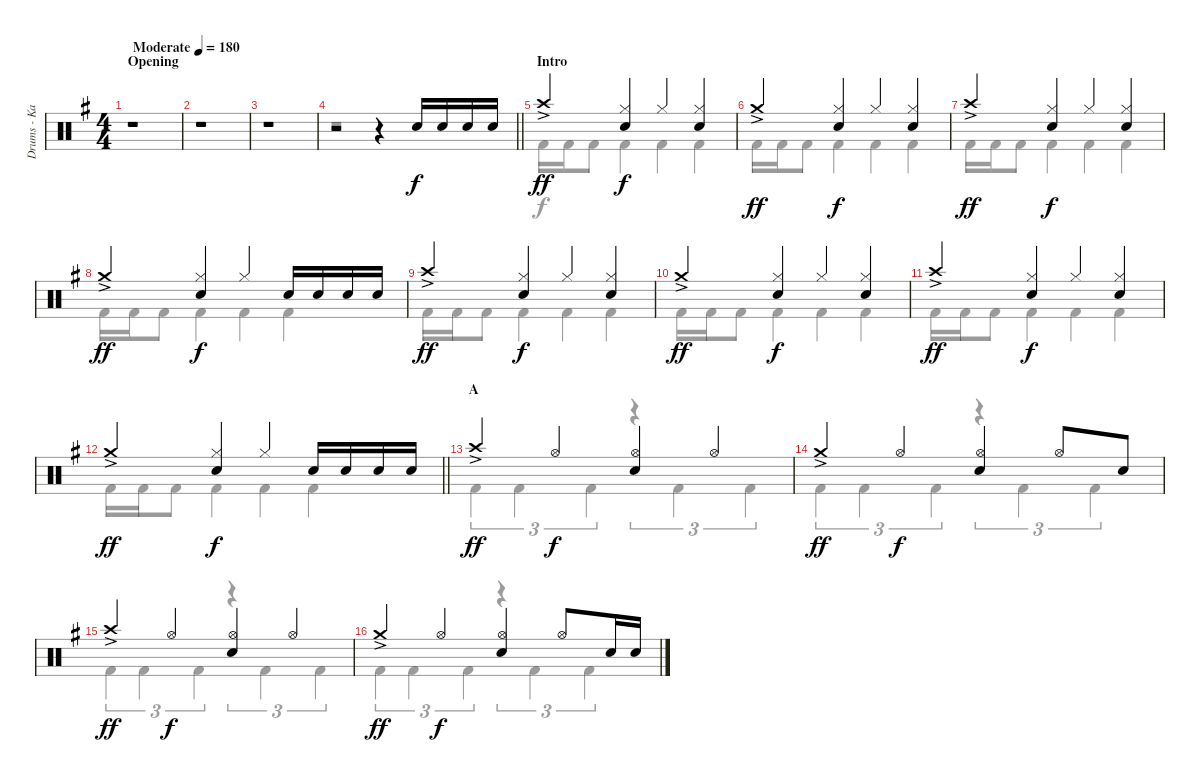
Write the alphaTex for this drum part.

\track ("Drums - Kai" "Drums - Ka") {instrument percussion}
\staff {score}
\articulation defaults
\voice
\ts (4 4)
\section ("" "Opening")
\tempo (180 "Moderate")
\clef neutral
\ks g
r.1{dy f} |
r.1 |
r.1 |
\barLineRight lightlight
r.2 r.4 "Snare (hit) 2".16 "Snare (hit) 2".16 "Snare (hit) 2".16 "Snare (hit) 2".16 |
\section ("" "Intro")
"Crash high (hit)"{ac}.4{dy ff} ("Hi-Hat (closed)" "Snare (hit) 2").4{dy f} "Hi-Hat (closed)".4 ("Hi-Hat (closed)" "Snare (hit) 2").4 |
"Crash medium (hit)"{ac}.4{dy ff} ("Hi-Hat (closed)" "Snare (hit) 2").4{dy f} "Hi-Hat (closed)".4 ("Hi-Hat (closed)" "Snare (hit) 2").4 |
"Crash high (hit)"{ac}.4{dy ff} ("Hi-Hat (closed)" "Snare (hit) 2").4{dy f} "Hi-Hat (closed)".4 ("Hi-Hat (closed)" "Snare (hit) 2").4 |
"Crash medium (hit)"{ac}.4{dy ff} ("Hi-Hat (closed)" "Snare (hit) 2").4{dy f} "Hi-Hat (closed)".4 "Snare (hit) 2".16 "Snare (hit) 2".16 "Snare (hit) 2".16 "Snare (hit) 2".16 |
"Crash high (hit)"{ac}.4{dy ff} ("Hi-Hat (closed)" "Snare (hit) 2").4{dy f} "Hi-Hat (closed)".4 ("Hi-Hat (closed)" "Snare (hit) 2").4 |
"Crash medium (hit)"{ac}.4{dy ff} ("Hi-Hat (closed)" "Snare (hit) 2").4{dy f} "Hi-Hat (closed)".4 ("Hi-Hat (closed)" "Snare (hit) 2").4 |
"Crash high (hit)"{ac}.4{dy ff} ("Hi-Hat (closed)" "Snare (hit) 2").4{dy f} "Hi-Hat (closed)".4 ("Hi-Hat (closed)" "Snare (hit) 2").4 |
\barLineRight lightlight "Crash medium (hit)"{ac}.4{dy ff}
("Hi-Hat (closed)" "Snare (hit) 2").4{dy f} "Hi-Hat (closed)".4 "Snare (hit) 2".16 "Snare (hit) 2".16 "Snare (hit) 2".16 "Snare (hit) 2".16 |
\section ("" "A")
"Crash high (hit)"{ac}.4{dy ff} "Hi-Hat (open)".4{dy f} ("Hi-Hat (open)" "Snare (hit) 2").4 "Hi-Hat (open)".4 |
"Crash medium (hit)"{ac}.4{dy ff} "Hi-Hat (open)".4{dy f} ("Hi-Hat (open)" "Snare (hit) 2").4 "Hi-Hat (open)".8 "Snare (hit) 2".8 |
"Crash high (hit)"{ac}.4{dy ff} "Hi-Hat (open)".4{dy f} ("Hi-Hat (open)" "Snare (hit) 2").4 "Hi-Hat (open)".4 |
"Crash medium (hit)"{ac}.4{dy ff} "Hi-Hat (open)".4{dy f} ("Hi-Hat (open)" "Snare (hit) 2").4 "Hi-Hat (open)".8 "Snare (hit) 2".16 "Snare (hit) 2".16
\voice
\clef neutral
\ottava regular
\simile none
\ks g
|
|
|
\barLineRight lightlight
r.1 |
"Kick (hit) 2".16 "Kick (hit) 2".16 "Kick (hit) 2".8 "Kick (hit) 2".4 "Kick (hit) 2".4 "Kick (hit) 2".4 |
"Kick (hit) 2".16 "Kick (hit) 2".16 "Kick (hit) 2".8 "Kick (hit) 2".4 "Kick (hit) 2".4 "Kick (hit) 2".4 |
"Kick (hit) 2".16 "Kick (hit) 2".16 "Kick (hit) 2".8 "Kick (hit) 2".4 "Kick (hit) 2".4 "Kick (hit) 2".4 |
"Kick (hit) 2".16 "Kick (hit) 2".16 "Kick (hit) 2".8 "Kick (hit) 2".4 "Kick (hit) 2".4 "Kick (hit) 2".4 |
"Kick (hit) 2".16 "Kick (hit) 2".16 "Kick (hit) 2".8 "Kick (hit) 2".4 "Kick (hit) 2".4 "Kick (hit) 2".4 |
"Kick (hit) 2".16 "Kick (hit) 2".16 "Kick (hit) 2".8 "Kick (hit) 2".4 "Kick (hit) 2".4 "Kick (hit) 2".4 |
"Kick (hit) 2".16 "Kick (hit) 2".16 "Kick (hit) 2".8 "Kick (hit) 2".4 "Kick (hit) 2".4 "Kick (hit) 2".4 |
\barLineRight lightlight "Kick (hit) 2".16 "Kick (hit) 2".16 "Kick (hit) 2".8 "Kick (hit) 2".4 "Kick (hit) 2".4 "Kick (hit) 2".4
|
"Kick (hit) 2".4{tu (3 2)} "Kick (hit) 2".4{tu (3 2)} "Kick (hit) 2".4{tu (3 2)} r.4{tu (3 2)} "Kick (hit) 2".4{tu (3 2)} "Kick (hit) 2".4{tu (3 2)} |
"Kick (hit) 2".4{tu (3 2)} "Kick (hit) 2".4{tu (3 2)} "Kick (hit) 2".4{tu (3 2)} r.4{tu (3 2)} "Kick (hit) 2".4{tu (3 2)} "Kick (hit) 2".4{tu (3 2)} |
"Kick (hit) 2".4{tu (3 2)} "Kick (hit) 2".4{tu (3 2)} "Kick (hit) 2".4{tu (3 2)} r.4{tu (3 2)} "Kick (hit) 2".4{tu (3 2)} "Kick (hit) 2".4{tu (3 2)} |
"Kick (hit) 2".4{tu (3 2)} "Kick (hit) 2".4{tu (3 2)} "Kick (hit) 2".4{tu (3 2)} r.4{tu (3 2)} "Kick (hit) 2".4{tu (3 2)} "Kick (hit) 2".4{tu (3 2)}
